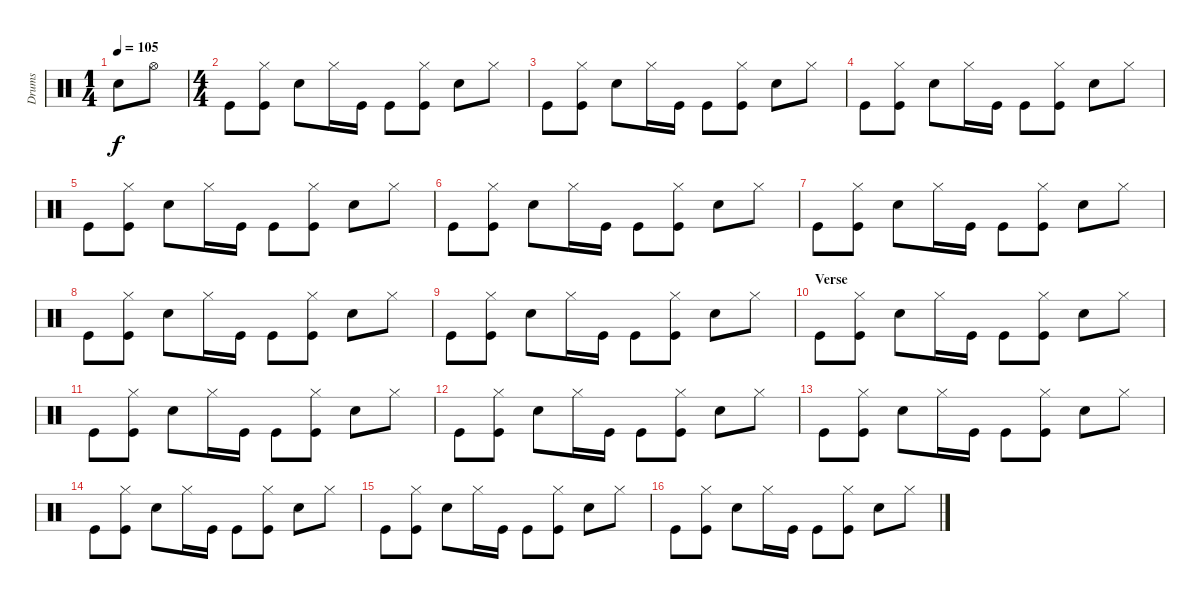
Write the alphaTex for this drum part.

\track ("Drums" "Drums") {instrument percussion}
\staff {score}
\articulation defaults
\ts (1 4)
\tempo 105
\clef neutral
\ks c "Electric Snare (hit)".8{dy f} "Hi-Hat (open)".8
|
\ts (4 4)
"Kick (hit)".8 ("Kick (hit)" "Hi-Hat (closed)").8 "Electric Snare (hit)".8 "Hi-Hat (closed)".16 "Kick (hit)".16 "Kick (hit)".8 ("Kick (hit)" "Hi-Hat (closed)").8 "Electric Snare (hit)".8 "Hi-Hat (closed)".8 |
"Kick (hit)".8 ("Kick (hit)" "Hi-Hat (closed)").8 "Electric Snare (hit)".8 "Hi-Hat (closed)".16 "Kick (hit)".16 "Kick (hit)".8 ("Kick (hit)" "Hi-Hat (closed)").8 "Electric Snare (hit)".8 "Hi-Hat (closed)".8 |
"Kick (hit)".8 ("Kick (hit)" "Hi-Hat (closed)").8 "Electric Snare (hit)".8 "Hi-Hat (closed)".16 "Kick (hit)".16 "Kick (hit)".8 ("Kick (hit)" "Hi-Hat (closed)").8 "Electric Snare (hit)".8 "Hi-Hat (closed)".8 |
"Kick (hit)".8 ("Kick (hit)" "Hi-Hat (closed)").8 "Electric Snare (hit)".8 "Hi-Hat (closed)".16 "Kick (hit)".16 "Kick (hit)".8 ("Kick (hit)" "Hi-Hat (closed)").8 "Electric Snare (hit)".8 "Hi-Hat (closed)".8 |
"Kick (hit)".8 ("Kick (hit)" "Hi-Hat (closed)").8 "Electric Snare (hit)".8 "Hi-Hat (closed)".16 "Kick (hit)".16 "Kick (hit)".8 ("Kick (hit)" "Hi-Hat (closed)").8 "Electric Snare (hit)".8 "Hi-Hat (closed)".8 |
"Kick (hit)".8 ("Kick (hit)" "Hi-Hat (closed)").8 "Electric Snare (hit)".8 "Hi-Hat (closed)".16 "Kick (hit)".16 "Kick (hit)".8 ("Kick (hit)" "Hi-Hat (closed)").8 "Electric Snare (hit)".8 "Hi-Hat (closed)".8 |
"Kick (hit)".8 ("Kick (hit)" "Hi-Hat (closed)").8 "Electric Snare (hit)".8 "Hi-Hat (closed)".16 "Kick (hit)".16 "Kick (hit)".8 ("Kick (hit)" "Hi-Hat (closed)").8 "Electric Snare (hit)".8 "Hi-Hat (closed)".8 |
"Kick (hit)".8 ("Kick (hit)" "Hi-Hat (closed)").8 "Electric Snare (hit)".8 "Hi-Hat (closed)".16 "Kick (hit)".16 "Kick (hit)".8 ("Kick (hit)" "Hi-Hat (closed)").8 "Electric Snare (hit)".8 "Hi-Hat (closed)".8 |
\section ("" "Verse")
"Kick (hit)".8 ("Kick (hit)" "Hi-Hat (closed)").8 "Electric Snare (hit)".8 "Hi-Hat (closed)".16 "Kick (hit)".16 "Kick (hit)".8 ("Kick (hit)" "Hi-Hat (closed)").8 "Electric Snare (hit)".8 "Hi-Hat (closed)".8 |
"Kick (hit)".8 ("Kick (hit)" "Hi-Hat (closed)").8 "Electric Snare (hit)".8 "Hi-Hat (closed)".16 "Kick (hit)".16 "Kick (hit)".8 ("Kick (hit)" "Hi-Hat (closed)").8 "Electric Snare (hit)".8 "Hi-Hat (closed)".8 |
"Kick (hit)".8 ("Kick (hit)" "Hi-Hat (closed)").8 "Electric Snare (hit)".8 "Hi-Hat (closed)".16 "Kick (hit)".16 "Kick (hit)".8 ("Kick (hit)" "Hi-Hat (closed)").8 "Electric Snare (hit)".8 "Hi-Hat (closed)".8 |
"Kick (hit)".8 ("Kick (hit)" "Hi-Hat (closed)").8 "Electric Snare (hit)".8 "Hi-Hat (closed)".16 "Kick (hit)".16 "Kick (hit)".8 ("Kick (hit)" "Hi-Hat (closed)").8 "Electric Snare (hit)".8 "Hi-Hat (closed)".8 |
"Kick (hit)".8 ("Kick (hit)" "Hi-Hat (closed)").8 "Electric Snare (hit)".8 "Hi-Hat (closed)".16 "Kick (hit)".16 "Kick (hit)".8 ("Kick (hit)" "Hi-Hat (closed)").8 "Electric Snare (hit)".8 "Hi-Hat (closed)".8 |
"Kick (hit)".8 ("Kick (hit)" "Hi-Hat (closed)").8 "Electric Snare (hit)".8 "Hi-Hat (closed)".16 "Kick (hit)".16 "Kick (hit)".8 ("Kick (hit)" "Hi-Hat (closed)").8 "Electric Snare (hit)".8 "Hi-Hat (closed)".8 |
"Kick (hit)".8 ("Kick (hit)" "Hi-Hat (closed)").8 "Electric Snare (hit)".8 "Hi-Hat (closed)".16 "Kick (hit)".16 "Kick (hit)".8 ("Kick (hit)" "Hi-Hat (closed)").8 "Electric Snare (hit)".8 "Hi-Hat (closed)".8
